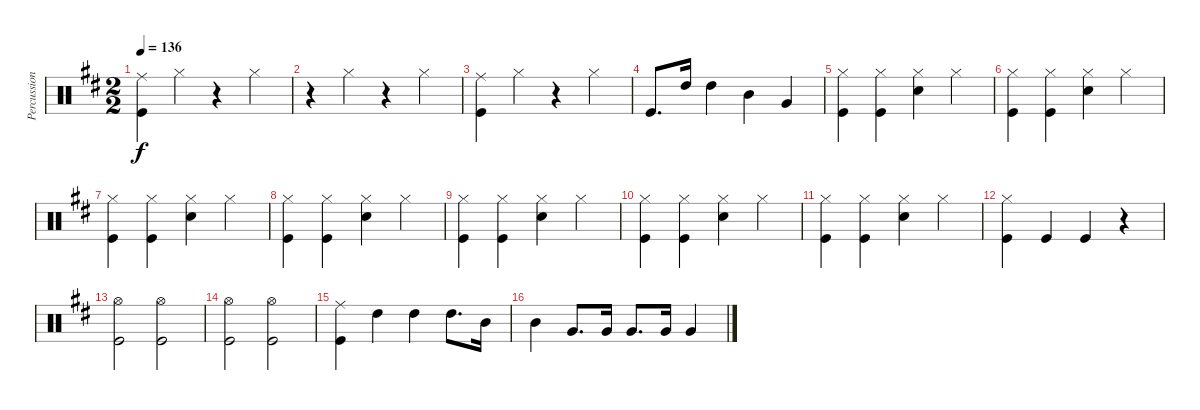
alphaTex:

\track ("Percussion" "Percussion") {instrument percussion}
\staff {score}
\articulation defaults
\ts (2 2)
\tempo 136
\clef neutral
\ks d
("Ride (middle)" "Kick (hit)").4{dy f} "Hi-Hat (closed)".4 r.4 "Hi-Hat (closed)".4 |
r.4 "Hi-Hat (closed)".4 r.4 "Hi-Hat (closed)".4 |
("Ride (middle)" "Kick (hit)").4 "Hi-Hat (closed)".4 r.4 "Hi-Hat (closed)".4 |
"Kick (hit)".8{d} "High Tom (hit)".16 "High Tom (hit)".4 "Mid Tom (hit)".4 "Very Low Tom (hit)".4 |
("Hi-Hat (closed)" "Kick (hit)").4 ("Hi-Hat (closed)" "Kick (hit)").4 ("Snare (hit) 2" "Hi-Hat (closed)").4 "Hi-Hat (closed)".4 |
("Hi-Hat (closed)" "Kick (hit)").4 ("Hi-Hat (closed)" "Kick (hit)").4 ("Snare (hit) 2" "Hi-Hat (closed)").4 "Hi-Hat (closed)".4 |
("Hi-Hat (closed)" "Kick (hit)").4 ("Hi-Hat (closed)" "Kick (hit)").4 ("Snare (hit) 2" "Hi-Hat (closed)").4 "Hi-Hat (closed)".4 |
("Hi-Hat (closed)" "Kick (hit)").4 ("Hi-Hat (closed)" "Kick (hit)").4 ("Snare (hit) 2" "Hi-Hat (closed)").4 "Hi-Hat (closed)".4 |
("Hi-Hat (closed)" "Kick (hit)").4 ("Hi-Hat (closed)" "Kick (hit)").4 ("Snare (hit) 2" "Hi-Hat (closed)").4 "Hi-Hat (closed)".4 |
("Hi-Hat (closed)" "Kick (hit)").4 ("Hi-Hat (closed)" "Kick (hit)").4 ("Snare (hit) 2" "Hi-Hat (closed)").4 "Hi-Hat (closed)".4 |
("Hi-Hat (closed)" "Kick (hit)").4 ("Hi-Hat (closed)" "Kick (hit)").4 ("Snare (hit) 2" "Hi-Hat (closed)").4 "Hi-Hat (closed)".4 |
("Kick (hit)" "Hi-Hat (closed)").4 "Kick (hit)".4 "Kick (hit)".4 r.4 |
("Hi-Hat (open)" "Kick (hit)").2 ("Hi-Hat (open)" "Kick (hit)").2 |
("Hi-Hat (open)" "Kick (hit)").2 ("Hi-Hat (open)" "Kick (hit)").2 |
("Ride (middle)" "Kick (hit)").4 "High Tom (hit)".4 "High Tom (hit)".4 "High Tom (hit)".8{d} "Mid Tom (hit)".16 |
"Mid Tom (hit)".4 "Very Low Tom (hit)".8{d} "Very Low Tom (hit)".16 "Very Low Tom (hit)".8{d} "Very Low Tom (hit)".16 "Very Low Tom (hit)".4
